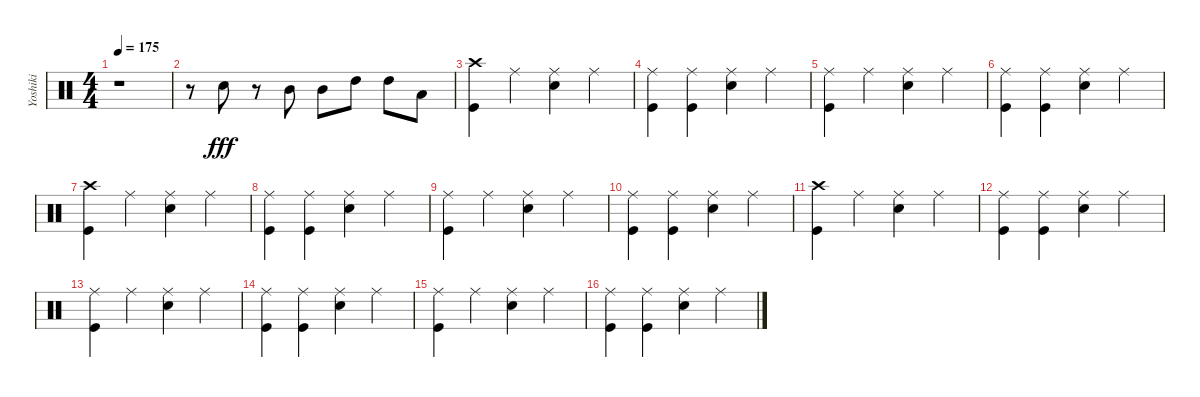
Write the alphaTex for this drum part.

\track ("Yoshiki" "Yoshiki") {instrument percussion}
\staff {score}
\articulation defaults
\ts (4 4)
\tempo 175
\clef neutral
\ks c
r.1{dy fff} |
r.8 "Snare (hit) 2".8 r.8 "Mid Tom (hit)".8 "Mid Tom (hit)".8 "High Tom (hit)".8 "High Tom (hit)".8 "Low Tom (hit)".8 |
("Crash high (hit)" "Kick (hit)").4 "Ride (middle)".4 ("Ride (middle)" "Snare (hit) 2").4 "Ride (middle)".4 |
("Ride (middle)" "Kick (hit)").4 ("Ride (middle)" "Kick (hit)").4 ("Ride (middle)" "Snare (hit) 2").4 "Ride (middle)".4 |
("Ride (middle)" "Kick (hit)").4 "Ride (middle)".4 ("Ride (middle)" "Snare (hit) 2").4 "Ride (middle)".4 |
("Ride (middle)" "Kick (hit)").4 ("Ride (middle)" "Kick (hit)").4 ("Ride (middle)" "Snare (hit) 2").4 "Ride (middle)".4 |
("Crash high (hit)" "Kick (hit)").4 "Ride (middle)".4 ("Ride (middle)" "Snare (hit) 2").4 "Ride (middle)".4 |
("Ride (middle)" "Kick (hit)").4 ("Ride (middle)" "Kick (hit)").4 ("Ride (middle)" "Snare (hit) 2").4 "Ride (middle)".4 |
("Ride (middle)" "Kick (hit)").4 "Ride (middle)".4 ("Ride (middle)" "Snare (hit) 2").4 "Ride (middle)".4 |
("Ride (middle)" "Kick (hit)").4 ("Ride (middle)" "Kick (hit)").4 ("Ride (middle)" "Snare (hit) 2").4 "Ride (middle)".4 |
("Crash high (hit)" "Kick (hit)").4 "Ride (middle)".4 ("Ride (middle)" "Snare (hit) 2").4 "Ride (middle)".4 |
("Ride (middle)" "Kick (hit)").4 ("Ride (middle)" "Kick (hit)").4 ("Ride (middle)" "Snare (hit) 2").4 "Ride (middle)".4 |
("Ride (middle)" "Kick (hit)").4 "Ride (middle)".4 ("Ride (middle)" "Snare (hit) 2").4 "Ride (middle)".4 |
("Ride (middle)" "Kick (hit)").4 ("Ride (middle)" "Kick (hit)").4 ("Ride (middle)" "Snare (hit) 2").4 "Ride (middle)".4 |
("Ride (middle)" "Kick (hit)").4 "Ride (middle)".4 ("Ride (middle)" "Snare (hit) 2").4 "Ride (middle)".4 |
("Ride (middle)" "Kick (hit)").4 ("Ride (middle)" "Kick (hit)").4 ("Ride (middle)" "Snare (hit) 2").4 "Ride (middle)".4
